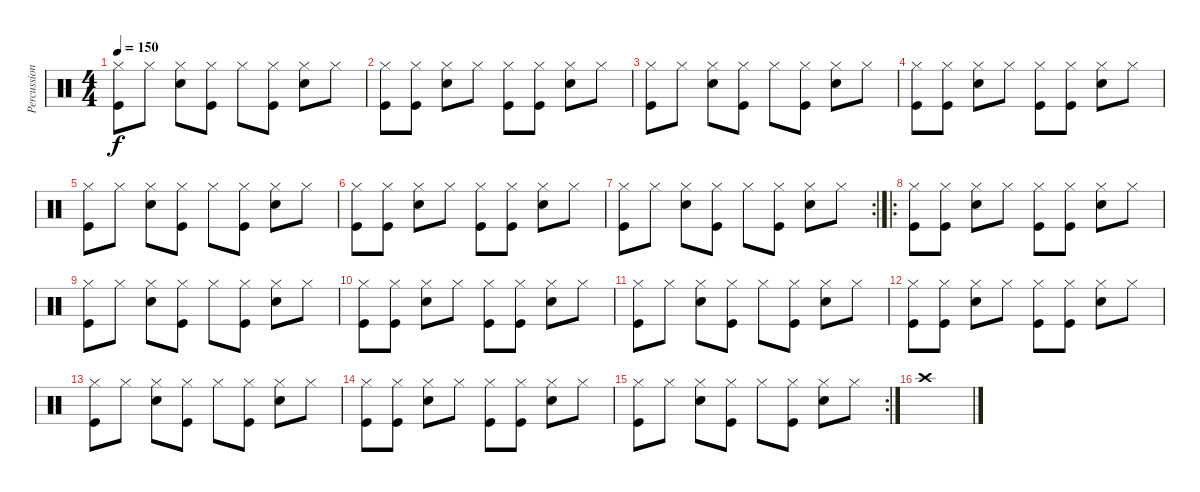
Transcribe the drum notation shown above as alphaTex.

\track ("Percussion" "Percussion") {instrument percussion}
\staff {score}
\articulation defaults
\ts (4 4)
\tempo 150
\clef neutral
\ks c
("Hi-Hat (closed)" "Kick (hit)").8{dy f} "Hi-Hat (closed)".8 ("Hi-Hat (closed)" "Electric Snare (hit)").8 ("Hi-Hat (closed)" "Kick (hit)").8 "Hi-Hat (closed)".8 ("Hi-Hat (closed)" "Kick (hit)").8 ("Hi-Hat (closed)" "Electric Snare (hit)").8 "Hi-Hat (closed)".8 |
("Hi-Hat (closed)" "Kick (hit)").8 ("Hi-Hat (closed)" "Kick (hit)").8 ("Hi-Hat (closed)" "Electric Snare (hit)").8 "Hi-Hat (closed)".8 ("Hi-Hat (closed)" "Kick (hit)").8 ("Hi-Hat (closed)" "Kick (hit)").8 ("Hi-Hat (closed)" "Electric Snare (hit)").8 "Hi-Hat (closed)".8 |
("Hi-Hat (closed)" "Kick (hit)").8 "Hi-Hat (closed)".8 ("Hi-Hat (closed)" "Electric Snare (hit)").8 ("Hi-Hat (closed)" "Kick (hit)").8 "Hi-Hat (closed)".8 ("Hi-Hat (closed)" "Kick (hit)").8 ("Hi-Hat (closed)" "Electric Snare (hit)").8 "Hi-Hat (closed)".8 |
("Hi-Hat (closed)" "Kick (hit)").8 ("Hi-Hat (closed)" "Kick (hit)").8 ("Hi-Hat (closed)" "Electric Snare (hit)").8 "Hi-Hat (closed)".8 ("Hi-Hat (closed)" "Kick (hit)").8 ("Hi-Hat (closed)" "Kick (hit)").8 ("Hi-Hat (closed)" "Electric Snare (hit)").8 "Hi-Hat (closed)".8 |
("Hi-Hat (closed)" "Kick (hit)").8 "Hi-Hat (closed)".8 ("Hi-Hat (closed)" "Electric Snare (hit)").8 ("Hi-Hat (closed)" "Kick (hit)").8 "Hi-Hat (closed)".8 ("Hi-Hat (closed)" "Kick (hit)").8 ("Hi-Hat (closed)" "Electric Snare (hit)").8 "Hi-Hat (closed)".8 |
("Hi-Hat (closed)" "Kick (hit)").8 ("Hi-Hat (closed)" "Kick (hit)").8 ("Hi-Hat (closed)" "Electric Snare (hit)").8 "Hi-Hat (closed)".8 ("Hi-Hat (closed)" "Kick (hit)").8 ("Hi-Hat (closed)" "Kick (hit)").8 ("Hi-Hat (closed)" "Electric Snare (hit)").8 "Hi-Hat (closed)".8 |
\rc 2
("Hi-Hat (closed)" "Kick (hit)").8 "Hi-Hat (closed)".8 ("Hi-Hat (closed)" "Electric Snare (hit)").8 ("Hi-Hat (closed)" "Kick (hit)").8 "Hi-Hat (closed)".8 ("Hi-Hat (closed)" "Kick (hit)").8 ("Hi-Hat (closed)" "Electric Snare (hit)").8 "Hi-Hat (closed)".8 |
\ro
("Hi-Hat (closed)" "Kick (hit)").8 ("Hi-Hat (closed)" "Kick (hit)").8 ("Hi-Hat (closed)" "Electric Snare (hit)").8 "Hi-Hat (closed)".8 ("Hi-Hat (closed)" "Kick (hit)").8 ("Hi-Hat (closed)" "Kick (hit)").8 ("Hi-Hat (closed)" "Electric Snare (hit)").8 "Hi-Hat (closed)".8 |
("Hi-Hat (closed)" "Kick (hit)").8 "Hi-Hat (closed)".8 ("Hi-Hat (closed)" "Electric Snare (hit)").8 ("Hi-Hat (closed)" "Kick (hit)").8 "Hi-Hat (closed)".8 ("Hi-Hat (closed)" "Kick (hit)").8 ("Hi-Hat (closed)" "Electric Snare (hit)").8 "Hi-Hat (closed)".8 |
("Hi-Hat (closed)" "Kick (hit)").8 ("Hi-Hat (closed)" "Kick (hit)").8 ("Hi-Hat (closed)" "Electric Snare (hit)").8 "Hi-Hat (closed)".8 ("Hi-Hat (closed)" "Kick (hit)").8 ("Hi-Hat (closed)" "Kick (hit)").8 ("Hi-Hat (closed)" "Electric Snare (hit)").8 "Hi-Hat (closed)".8 |
("Hi-Hat (closed)" "Kick (hit)").8 "Hi-Hat (closed)".8 ("Hi-Hat (closed)" "Electric Snare (hit)").8 ("Hi-Hat (closed)" "Kick (hit)").8 "Hi-Hat (closed)".8 ("Hi-Hat (closed)" "Kick (hit)").8 ("Hi-Hat (closed)" "Electric Snare (hit)").8 "Hi-Hat (closed)".8 |
("Hi-Hat (closed)" "Kick (hit)").8 ("Hi-Hat (closed)" "Kick (hit)").8 ("Hi-Hat (closed)" "Electric Snare (hit)").8 "Hi-Hat (closed)".8 ("Hi-Hat (closed)" "Kick (hit)").8 ("Hi-Hat (closed)" "Kick (hit)").8 ("Hi-Hat (closed)" "Electric Snare (hit)").8 "Hi-Hat (closed)".8 |
("Hi-Hat (closed)" "Kick (hit)").8 "Hi-Hat (closed)".8 ("Hi-Hat (closed)" "Electric Snare (hit)").8 ("Hi-Hat (closed)" "Kick (hit)").8 "Hi-Hat (closed)".8 ("Hi-Hat (closed)" "Kick (hit)").8 ("Hi-Hat (closed)" "Electric Snare (hit)").8 "Hi-Hat (closed)".8 |
("Hi-Hat (closed)" "Kick (hit)").8 ("Hi-Hat (closed)" "Kick (hit)").8 ("Hi-Hat (closed)" "Electric Snare (hit)").8 "Hi-Hat (closed)".8 ("Hi-Hat (closed)" "Kick (hit)").8 ("Hi-Hat (closed)" "Kick (hit)").8 ("Hi-Hat (closed)" "Electric Snare (hit)").8 "Hi-Hat (closed)".8 |
\rc 2
("Hi-Hat (closed)" "Kick (hit)").8 "Hi-Hat (closed)".8 ("Hi-Hat (closed)" "Electric Snare (hit)").8 ("Hi-Hat (closed)" "Kick (hit)").8 "Hi-Hat (closed)".8 ("Hi-Hat (closed)" "Kick (hit)").8 ("Hi-Hat (closed)" "Electric Snare (hit)").8 "Hi-Hat (closed)".8 |
"Crash high (hit)".1
